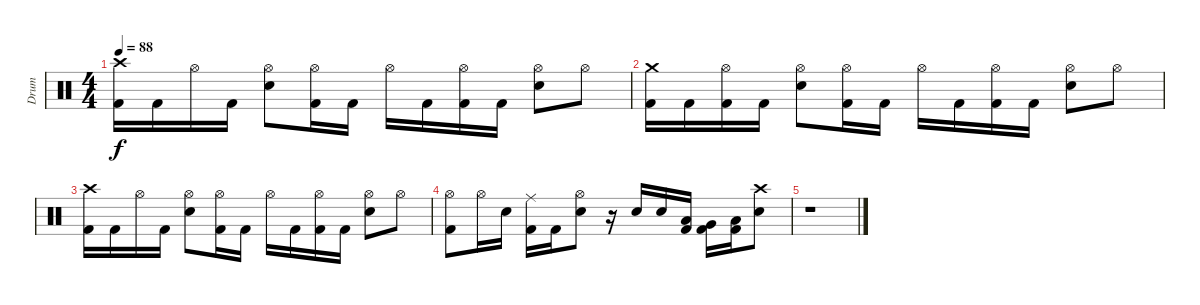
\track ("Drum" "Drum") {instrument percussion}
\staff {score}
\articulation defaults
\ts (4 4)
\tempo 88
\clef neutral
\ks c
("Crash high (hit)" "Kick (hit) 2").16{dy f} "Kick (hit) 2".16 "Hi-Hat (open)".16 "Kick (hit) 2".16 ("Hi-Hat (open)" "Electric Snare (hit)").8 ("Hi-Hat (open)" "Kick (hit) 2").16 "Kick (hit) 2".16 "Hi-Hat (open)".16 "Kick (hit) 2".16 ("Hi-Hat (open)" "Kick (hit) 2").16 "Kick (hit) 2".16 ("Hi-Hat (open)" "Electric Snare (hit)").8 "Hi-Hat (open)".8 |
("Crash medium (hit)" "Kick (hit) 2").16 "Kick (hit) 2".16 ("Hi-Hat (open)" "Kick (hit) 2").16 "Kick (hit) 2".16 ("Hi-Hat (open)" "Electric Snare (hit)").8 ("Hi-Hat (open)" "Kick (hit) 2").16 "Kick (hit) 2".16 "Hi-Hat (open)".16 "Kick (hit) 2".16 ("Hi-Hat (open)" "Kick (hit) 2").16 "Kick (hit) 2".16 ("Hi-Hat (open)" "Electric Snare (hit)").8 "Hi-Hat (open)".8 |
("Crash high (hit)" "Kick (hit) 2").16 "Kick (hit) 2".16 "Hi-Hat (open)".16 "Kick (hit) 2".16 ("Hi-Hat (open)" "Electric Snare (hit)").8 ("Hi-Hat (open)" "Kick (hit) 2").16 "Kick (hit) 2".16 "Hi-Hat (open)".16 "Kick (hit) 2".16 ("Hi-Hat (open)" "Kick (hit) 2").16 "Kick (hit) 2".16 ("Hi-Hat (open)" "Electric Snare (hit)").8 "Hi-Hat (open)".8 |
("Hi-Hat (open)" "Kick (hit) 2").8 "Hi-Hat (open)".16 "Electric Snare (hit)".16 ("Ride (middle)" "Kick (hit) 2").16 "Kick (hit) 2".16 ("Hi-Hat (open)" "Electric Snare (hit)").8 r.16 "Electric Snare (hit)".16 "Electric Snare (hit)".16 ("Low Tom (hit)" "Kick (hit) 2").16 ("Very Low Tom (hit)" "Kick (hit) 2").16 ("Low Floor Tom (hit)" "Kick (hit) 2").16 ("Crash high (hit)" "Electric Snare (hit)").8 |
r.1
